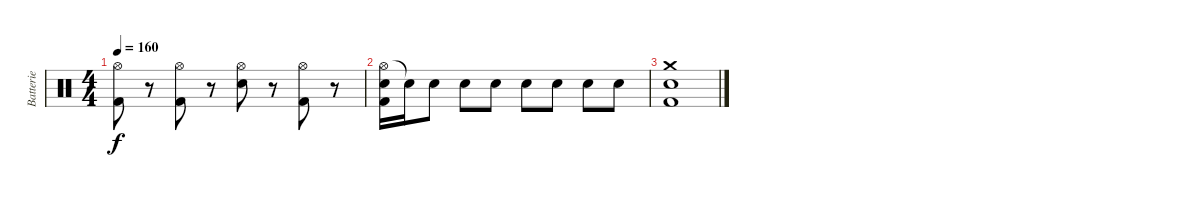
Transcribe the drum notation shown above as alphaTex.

\track ("Batterie" "Batterie") {instrument percussion}
\staff {score}
\articulation defaults
\ts (4 4)
\tempo 160
\clef neutral
\ks c
("Hi-Hat (open)" "Kick (hit) 2").8{dy f} r.8 ("Hi-Hat (open)" "Kick (hit) 2").8 r.8 ("Hi-Hat (open)" "Electric Snare (hit)").8 r.8 ("Hi-Hat (open)" "Kick (hit) 2").8 r.8 |
("Hi-Hat (open)" "Electric Snare (hit)" "Kick (hit) 2").16 "Snare (hit)"{t}.16 "Electric Snare (hit)".8 "Electric Snare (hit)".8 "Electric Snare (hit)".8 "Electric Snare (hit)".8 "Electric Snare (hit)".8 "Electric Snare (hit)".8 "Electric Snare (hit)".8 |
("Crash medium (hit)" "Electric Snare (hit)" "Kick (hit) 2").1
